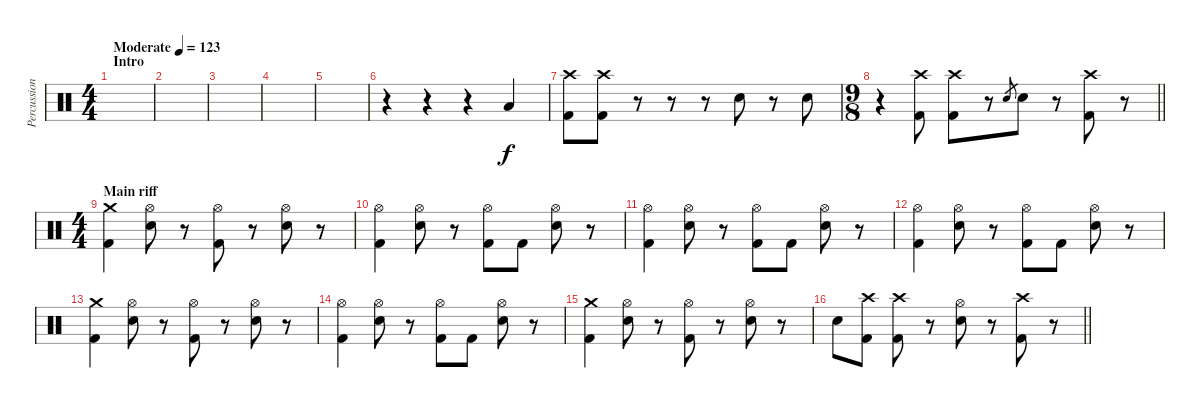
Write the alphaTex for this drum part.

\track ("Percussion" "Percussion") {instrument percussion}
\staff {score}
\articulation defaults
\ts (4 4)
\section ("" "Intro")
\tempo (123 "Moderate")
\clef neutral
\ks c
|
|
|
|
|
r.4 r.4 r.4 "Low Tom (hit)".4 |
("Kick (hit) 2" "Crash high (hit)").8 ("Kick (hit) 2" "Crash high (hit)").8 r.8 r.8 r.8 "Electric Snare (hit)".8 r.8 "Electric Snare (hit)".8 |
\ts (9 8)
\barLineRight lightlight
r.4 ("Crash high (hit)" "Kick (hit) 2").8 ("Crash high (hit)" "Kick (hit) 2").8 r.8 "Electric Snare (hit)".8{gr} "Electric Snare (hit)".8 r.8 ("Crash high (hit)" "Kick (hit) 2").8 r.8 |
\ts (4 4)
\section ("" "Main riff")
("Crash medium (hit)" "Kick (hit) 2").4 ("Hi-Hat (open)" "Electric Snare (hit)").8 r.8 ("Hi-Hat (open)" "Kick (hit) 2").8 r.8 ("Hi-Hat (open)" "Electric Snare (hit)").8 r.8 |
("Hi-Hat (open)" "Kick (hit) 2").4 ("Hi-Hat (open)" "Electric Snare (hit)").8 r.8 ("Hi-Hat (open)" "Kick (hit) 2").8 "Kick (hit) 2".8 ("Hi-Hat (open)" "Electric Snare (hit)").8 r.8 |
("Hi-Hat (open)" "Kick (hit) 2").4 ("Hi-Hat (open)" "Electric Snare (hit)").8 r.8 ("Hi-Hat (open)" "Kick (hit) 2").8 "Kick (hit) 2".8 ("Hi-Hat (open)" "Electric Snare (hit)").8 r.8 |
("Hi-Hat (open)" "Kick (hit) 2").4 ("Hi-Hat (open)" "Electric Snare (hit)").8 r.8 ("Hi-Hat (open)" "Kick (hit) 2").8 "Kick (hit) 2".8 ("Hi-Hat (open)" "Electric Snare (hit)").8 r.8 |
("Crash medium (hit)" "Kick (hit) 2").4 ("Hi-Hat (open)" "Electric Snare (hit)").8 r.8 ("Hi-Hat (open)" "Kick (hit) 2").8 r.8 ("Hi-Hat (open)" "Electric Snare (hit)").8 r.8 |
("Hi-Hat (open)" "Kick (hit) 2").4 ("Hi-Hat (open)" "Electric Snare (hit)").8 r.8 ("Hi-Hat (open)" "Kick (hit) 2").8 "Kick (hit) 2".8 ("Hi-Hat (open)" "Electric Snare (hit)").8 r.8 |
("Crash medium (hit)" "Kick (hit) 2").4 ("Hi-Hat (open)" "Electric Snare (hit)").8 r.8 ("Hi-Hat (open)" "Kick (hit) 2").8 r.8 ("Hi-Hat (open)" "Electric Snare (hit)").8 r.8 |
\barLineRight lightlight "Electric Snare (hit)".8
("Crash high (hit)" "Kick (hit) 2").8 ("Crash high (hit)" "Kick (hit) 2").8 r.8 ("Hi-Hat (open)" "Electric Snare (hit)").8 r.8 ("Crash high (hit)" "Kick (hit) 2").8 r.8
